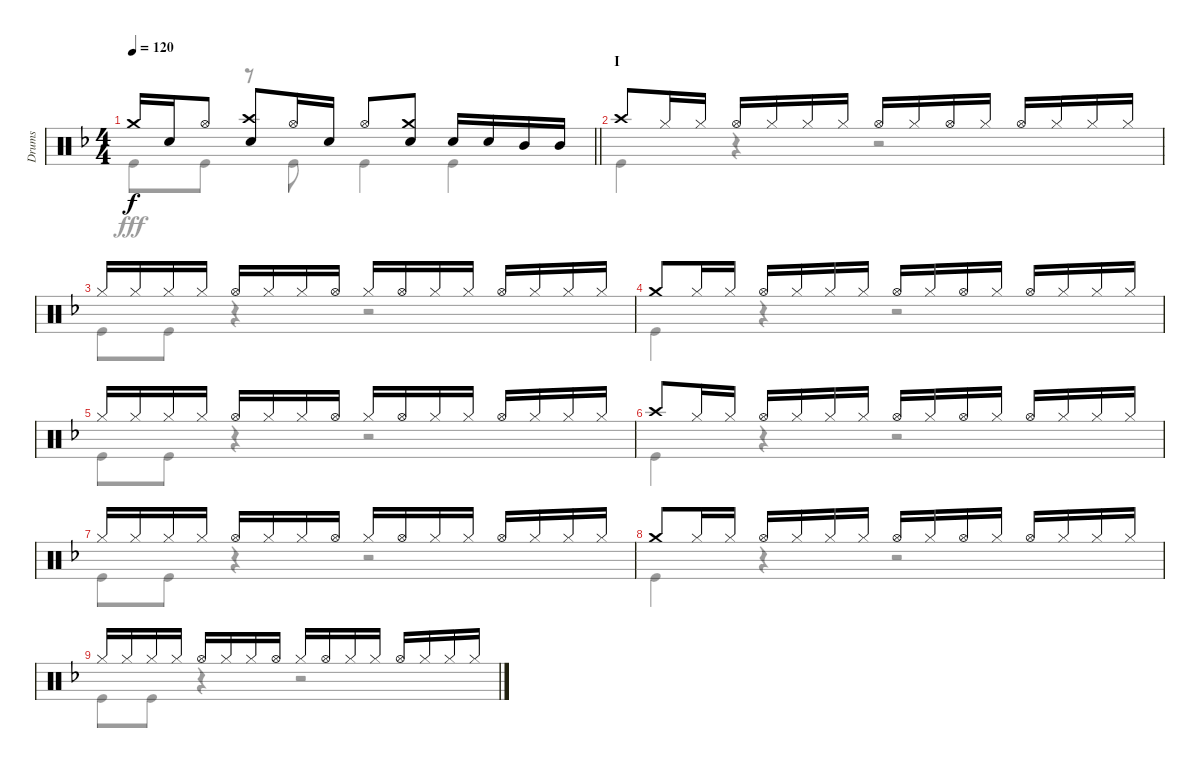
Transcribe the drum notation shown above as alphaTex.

\track ("Drums" "Drums") {instrument percussion}
\staff {score}
\articulation defaults
\voice
\ts (4 4)
\tempo 120
\clef neutral
\barLineRight lightlight
\ks f "Crash medium (hit)".16{dy f} "Snare (hit) 2".16 "Hi-Hat (open)".8
("Crash high (hit)" "Snare (hit) 2").8 "Hi-Hat (open)".16 "Snare (hit) 2".16 "Hi-Hat (open)".8 ("Crash medium (hit)" "Snare (hit) 2").8 "Snare (hit) 2".16 "Snare (hit) 2".16 "Mid Tom (hit)".16 "Mid Tom (hit)".16 |
\section ("" "I")
"Crash high (hit)".8 "Hi-Hat (closed)".16 "Hi-Hat (closed)".16 "Hi-Hat (open)".16 "Hi-Hat (closed)".16 "Hi-Hat (closed)".16 "Hi-Hat (closed)".16 "Hi-Hat (open)".16 "Hi-Hat (closed)".16 "Hi-Hat (open)".16 "Hi-Hat (closed)".16 "Hi-Hat (open)".16 "Hi-Hat (closed)".16 "Hi-Hat (closed)".16 "Hi-Hat (closed)".16 |
"Hi-Hat (closed)".16 "Hi-Hat (closed)".16 "Hi-Hat (closed)".16 "Hi-Hat (closed)".16 "Hi-Hat (open)".16 "Hi-Hat (closed)".16 "Hi-Hat (closed)".16 "Hi-Hat (open)".16 "Hi-Hat (closed)".16 "Hi-Hat (open)".16 "Hi-Hat (closed)".16 "Hi-Hat (closed)".16 "Hi-Hat (open)".16 "Hi-Hat (closed)".16 "Hi-Hat (closed)".16 "Hi-Hat (closed)".16 |
"Crash medium (hit)".8 "Hi-Hat (closed)".16 "Hi-Hat (closed)".16 "Hi-Hat (open)".16 "Hi-Hat (closed)".16 "Hi-Hat (closed)".16 "Hi-Hat (closed)".16 "Hi-Hat (open)".16 "Hi-Hat (closed)".16 "Hi-Hat (open)".16 "Hi-Hat (closed)".16 "Hi-Hat (open)".16 "Hi-Hat (closed)".16 "Hi-Hat (closed)".16 "Hi-Hat (closed)".16 |
"Hi-Hat (closed)".16 "Hi-Hat (closed)".16 "Hi-Hat (closed)".16 "Hi-Hat (closed)".16 "Hi-Hat (open)".16 "Hi-Hat (closed)".16 "Hi-Hat (closed)".16 "Hi-Hat (open)".16 "Hi-Hat (closed)".16 "Hi-Hat (open)".16 "Hi-Hat (closed)".16 "Hi-Hat (closed)".16 "Hi-Hat (open)".16 "Hi-Hat (closed)".16 "Hi-Hat (closed)".16 "Hi-Hat (closed)".16 |
"Crash high (hit)".8 "Hi-Hat (closed)".16 "Hi-Hat (closed)".16 "Hi-Hat (open)".16 "Hi-Hat (closed)".16 "Hi-Hat (closed)".16 "Hi-Hat (closed)".16 "Hi-Hat (open)".16 "Hi-Hat (closed)".16 "Hi-Hat (open)".16 "Hi-Hat (closed)".16 "Hi-Hat (open)".16 "Hi-Hat (closed)".16 "Hi-Hat (closed)".16 "Hi-Hat (closed)".16 |
"Hi-Hat (closed)".16 "Hi-Hat (closed)".16 "Hi-Hat (closed)".16 "Hi-Hat (closed)".16 "Hi-Hat (open)".16 "Hi-Hat (closed)".16 "Hi-Hat (closed)".16 "Hi-Hat (open)".16 "Hi-Hat (closed)".16 "Hi-Hat (open)".16 "Hi-Hat (closed)".16 "Hi-Hat (closed)".16 "Hi-Hat (open)".16 "Hi-Hat (closed)".16 "Hi-Hat (closed)".16 "Hi-Hat (closed)".16 |
"Crash medium (hit)".8 "Hi-Hat (closed)".16 "Hi-Hat (closed)".16 "Hi-Hat (open)".16 "Hi-Hat (closed)".16 "Hi-Hat (closed)".16 "Hi-Hat (closed)".16 "Hi-Hat (open)".16 "Hi-Hat (closed)".16 "Hi-Hat (open)".16 "Hi-Hat (closed)".16 "Hi-Hat (open)".16 "Hi-Hat (closed)".16 "Hi-Hat (closed)".16 "Hi-Hat (closed)".16 |
"Hi-Hat (closed)".16 "Hi-Hat (closed)".16 "Hi-Hat (closed)".16 "Hi-Hat (closed)".16 "Hi-Hat (open)".16 "Hi-Hat (closed)".16 "Hi-Hat (closed)".16 "Hi-Hat (open)".16 "Hi-Hat (closed)".16 "Hi-Hat (open)".16 "Hi-Hat (closed)".16 "Hi-Hat (closed)".16 "Hi-Hat (open)".16 "Hi-Hat (closed)".16 "Hi-Hat (closed)".16 "Hi-Hat (closed)".16
\voice
\clef neutral
\ottava regular
\simile none
\barLineRight lightlight
\ks f "Kick (hit)".8{dy fff} "Kick (hit)".8
r.8 "Kick (hit)".8 "Kick (hit)".4 "Kick (hit)".4 |
"Kick (hit)".4 r.4 r.2 |
"Kick (hit)".8 "Kick (hit)".8 r.4 r.2 |
"Kick (hit)".4 r.4 r.2 |
"Kick (hit)".8 "Kick (hit)".8 r.4 r.2 |
"Kick (hit)".4 r.4 r.2 |
"Kick (hit)".8 "Kick (hit)".8 r.4 r.2 |
"Kick (hit)".4 r.4 r.2 |
"Kick (hit)".8 "Kick (hit)".8 r.4 r.2
